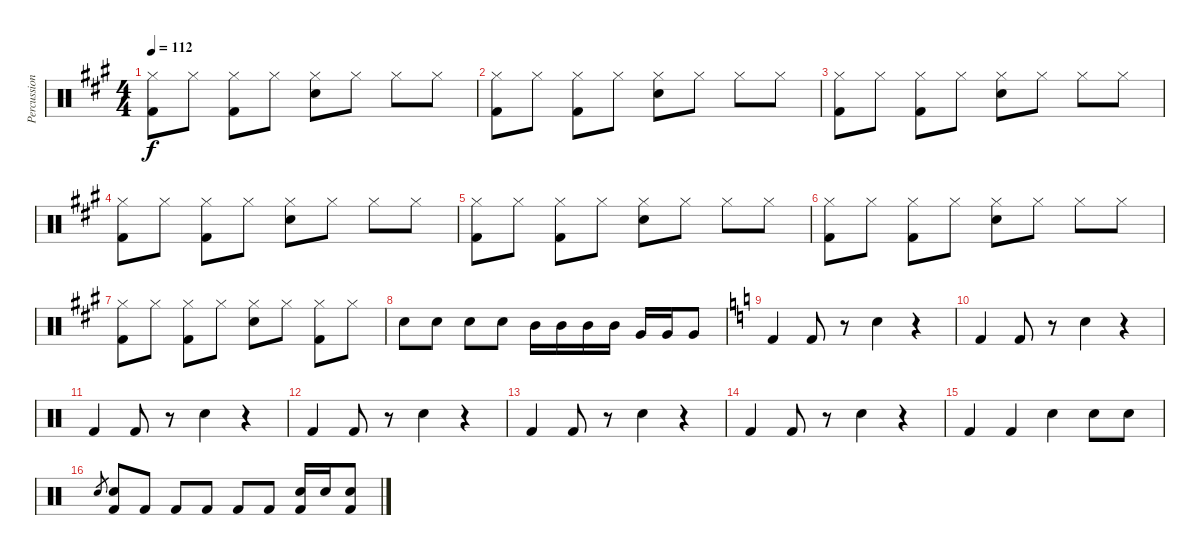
\track ("Percussion" "Percussion") {instrument percussion}
\staff {score}
\articulation defaults
\ts (4 4)
\tempo 112
\clef neutral
\ks a
("Hi-Hat (closed)" "Kick (hit) 2").8{dy f} "Hi-Hat (closed)".8 ("Hi-Hat (closed)" "Kick (hit) 2").8 "Hi-Hat (closed)".8 ("Hi-Hat (closed)" "Snare (hit) 2").8 "Hi-Hat (closed)".8 "Hi-Hat (closed)".8 "Hi-Hat (closed)".8 |
("Hi-Hat (closed)" "Kick (hit) 2").8 "Hi-Hat (closed)".8 ("Hi-Hat (closed)" "Kick (hit) 2").8 "Hi-Hat (closed)".8 ("Hi-Hat (closed)" "Snare (hit) 2").8 "Hi-Hat (closed)".8 "Hi-Hat (closed)".8 "Hi-Hat (closed)".8 |
("Hi-Hat (closed)" "Kick (hit) 2").8 "Hi-Hat (closed)".8 ("Hi-Hat (closed)" "Kick (hit) 2").8 "Hi-Hat (closed)".8 ("Hi-Hat (closed)" "Snare (hit) 2").8 "Hi-Hat (closed)".8 "Hi-Hat (closed)".8 "Hi-Hat (closed)".8 |
("Hi-Hat (closed)" "Kick (hit) 2").8 "Hi-Hat (closed)".8 ("Hi-Hat (closed)" "Kick (hit) 2").8 "Hi-Hat (closed)".8 ("Hi-Hat (closed)" "Snare (hit) 2").8 "Hi-Hat (closed)".8 "Hi-Hat (closed)".8 "Hi-Hat (closed)".8 |
("Hi-Hat (closed)" "Kick (hit) 2").8 "Hi-Hat (closed)".8 ("Hi-Hat (closed)" "Kick (hit) 2").8 "Hi-Hat (closed)".8 ("Hi-Hat (closed)" "Snare (hit) 2").8 "Hi-Hat (closed)".8 "Hi-Hat (closed)".8 "Hi-Hat (closed)".8 |
("Hi-Hat (closed)" "Kick (hit) 2").8 "Hi-Hat (closed)".8 ("Hi-Hat (closed)" "Kick (hit) 2").8 "Hi-Hat (closed)".8 ("Hi-Hat (closed)" "Snare (hit) 2").8 "Hi-Hat (closed)".8 "Hi-Hat (closed)".8 "Hi-Hat (closed)".8 |
("Hi-Hat (closed)" "Kick (hit) 2").8 "Hi-Hat (closed)".8 ("Hi-Hat (closed)" "Kick (hit) 2").8 "Hi-Hat (closed)".8 ("Hi-Hat (closed)" "Snare (hit) 2").8 "Hi-Hat (closed)".8 ("Hi-Hat (closed)" "Kick (hit) 2").8 "Hi-Hat (closed)".8 |
"Snare (hit) 2".8 "Snare (hit) 2".8 "Snare (hit) 2".8 "Snare (hit) 2".8 "Mid Tom (hit)".16 "Mid Tom (hit)".16 "Mid Tom (hit)".16 "Mid Tom (hit)".16 "Very Low Tom (hit)".16 "Very Low Tom (hit)".16 "Very Low Tom (hit)".8 |
\ks c "Kick (hit) 2".4 "Kick (hit) 2".8
r.8 "Snare (hit) 2".4 r.4 |
"Kick (hit) 2".4 "Kick (hit) 2".8 r.8 "Snare (hit) 2".4 r.4 |
"Kick (hit) 2".4 "Kick (hit) 2".8 r.8 "Snare (hit) 2".4 r.4 |
"Kick (hit) 2".4 "Kick (hit) 2".8 r.8 "Snare (hit) 2".4 r.4 |
"Kick (hit) 2".4 "Kick (hit) 2".8 r.8 "Snare (hit) 2".4 r.4 |
"Kick (hit) 2".4 "Kick (hit) 2".8 r.8 "Snare (hit) 2".4 r.4 |
"Kick (hit) 2".4 "Kick (hit) 2".4 "Snare (hit) 2".4 "Snare (hit) 2".8 "Snare (hit) 2".8 |
"Snare (hit) 2".8{gr} ("Snare (hit) 2" "Kick (hit) 2").8 "Kick (hit) 2".8 "Kick (hit) 2".8 "Kick (hit) 2".8 "Kick (hit) 2".8 "Kick (hit) 2".8 ("Snare (hit) 2" "Kick (hit) 2").16 "Snare (hit) 2".16 ("Snare (hit) 2" "Kick (hit) 2").8
